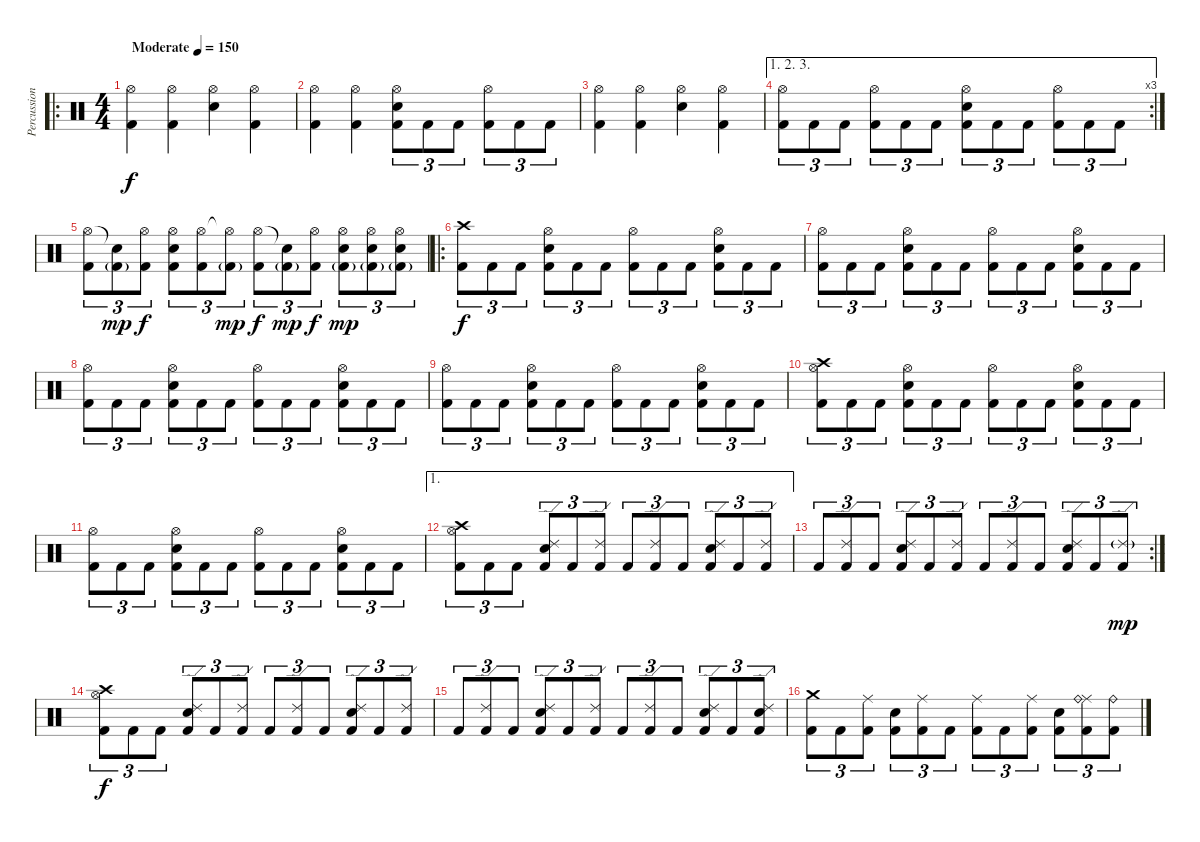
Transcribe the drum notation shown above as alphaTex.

\track ("Percussion" "Percussion") {instrument percussion}
\staff {score}
\articulation defaults
\ro
\ts (4 4)
\tempo (150 "Moderate")
\clef neutral
\ks c
("Hi-Hat (open)" "Kick (hit) 2").4{dy f} ("Hi-Hat (open)" "Kick (hit) 2").4 ("Hi-Hat (open)" "Electric Snare (hit)").4 ("Hi-Hat (open)" "Kick (hit) 2").4 |
("Hi-Hat (open)" "Kick (hit) 2").4 ("Hi-Hat (open)" "Kick (hit) 2").4 ("Hi-Hat (open)" "Electric Snare (hit)" "Kick (hit) 2").8{tu (3 2)} "Kick (hit) 2".8{tu (3 2)} "Kick (hit) 2".8{tu (3 2)} ("Hi-Hat (open)" "Kick (hit) 2").8{tu (3 2)} "Kick (hit) 2".8{tu (3 2)} "Kick (hit) 2".8{tu (3 2)} |
("Hi-Hat (open)" "Kick (hit) 2").4 ("Hi-Hat (open)" "Kick (hit) 2").4 ("Hi-Hat (open)" "Electric Snare (hit)").4 ("Hi-Hat (open)" "Kick (hit) 2").4 |
\ae (1 2 3)
\rc 3
("Hi-Hat (open)" "Kick (hit) 2").8{tu (3 2)} "Kick (hit) 2".8{tu (3 2)} "Kick (hit) 2".8{tu (3 2)} ("Hi-Hat (open)" "Kick (hit) 2").8{tu (3 2)} "Kick (hit) 2".8{tu (3 2)} "Kick (hit) 2".8{tu (3 2)} ("Hi-Hat (open)" "Electric Snare (hit)" "Kick (hit) 2").8{tu (3 2)} "Kick (hit) 2".8{tu (3 2)} "Kick (hit) 2".8{tu (3 2)} ("Hi-Hat (open)" "Kick (hit) 2").8{tu (3 2)} "Kick (hit) 2".8{tu (3 2)} "Kick (hit) 2".8{tu (3 2)} |
("Hi-Hat (open)" "Kick (hit) 2").8{tu (3 2)} ("Snare (hit)"{t} "Kick (hit) 2"{g}).8{tu (3 2) dy mp} ("Hi-Hat (open)" "Kick (hit) 2").8{tu (3 2) dy f} ("Hi-Hat (open)" "Electric Snare (hit)" "Kick (hit) 2").8{tu (3 2)} ("Hi-Hat (open)" "Kick (hit) 2").8{tu (3 2)} ("Hi-Hat (open)"{t} "Kick (hit) 2"{g}).8{tu (3 2) dy mp} ("Hi-Hat (open)" "Kick (hit) 2").8{tu (3 2) dy f} ("Snare (hit)"{t} "Kick (hit) 2"{g}).8{tu (3 2) dy mp} ("Hi-Hat (open)" "Kick (hit) 2").8{tu (3 2) dy f} ("Hi-Hat (open)" "Electric Snare (hit)" "Kick (hit) 2"{g}).8{tu (3 2) dy mp} ("Hi-Hat (open)" "Electric Snare (hit)" "Kick (hit) 2"{g}).8{tu (3 2)} ("Hi-Hat (open)" "Electric Snare (hit)" "Kick (hit) 2"{g}).8{tu (3 2)} |
\ro
("Crash high (hit)" "Kick (hit) 2").8{tu (3 2) dy f} "Kick (hit) 2".8{tu (3 2)} "Kick (hit) 2".8{tu (3 2)} ("Hi-Hat (open)" "Electric Snare (hit)" "Kick (hit) 2").8{tu (3 2)} "Kick (hit) 2".8{tu (3 2)} "Kick (hit) 2".8{tu (3 2)} ("Hi-Hat (open)" "Kick (hit) 2").8{tu (3 2)} "Kick (hit) 2".8{tu (3 2)} "Kick (hit) 2".8{tu (3 2)} ("Hi-Hat (open)" "Electric Snare (hit)" "Kick (hit) 2").8{tu (3 2)} "Kick (hit) 2".8{tu (3 2)} "Kick (hit) 2".8{tu (3 2)} |
("Hi-Hat (open)" "Kick (hit) 2").8{tu (3 2)} "Kick (hit) 2".8{tu (3 2)} "Kick (hit) 2".8{tu (3 2)} ("Hi-Hat (open)" "Electric Snare (hit)" "Kick (hit) 2").8{tu (3 2)} "Kick (hit) 2".8{tu (3 2)} "Kick (hit) 2".8{tu (3 2)} ("Hi-Hat (open)" "Kick (hit) 2").8{tu (3 2)} "Kick (hit) 2".8{tu (3 2)} "Kick (hit) 2".8{tu (3 2)} ("Hi-Hat (open)" "Electric Snare (hit)" "Kick (hit) 2").8{tu (3 2)} "Kick (hit) 2".8{tu (3 2)} "Kick (hit) 2".8{tu (3 2)} |
("Hi-Hat (open)" "Kick (hit) 2").8{tu (3 2)} "Kick (hit) 2".8{tu (3 2)} "Kick (hit) 2".8{tu (3 2)} ("Hi-Hat (open)" "Electric Snare (hit)" "Kick (hit) 2").8{tu (3 2)} "Kick (hit) 2".8{tu (3 2)} "Kick (hit) 2".8{tu (3 2)} ("Hi-Hat (open)" "Kick (hit) 2").8{tu (3 2)} "Kick (hit) 2".8{tu (3 2)} "Kick (hit) 2".8{tu (3 2)} ("Hi-Hat (open)" "Electric Snare (hit)" "Kick (hit) 2").8{tu (3 2)} "Kick (hit) 2".8{tu (3 2)} "Kick (hit) 2".8{tu (3 2)} |
("Hi-Hat (open)" "Kick (hit) 2").8{tu (3 2)} "Kick (hit) 2".8{tu (3 2)} "Kick (hit) 2".8{tu (3 2)} ("Hi-Hat (open)" "Electric Snare (hit)" "Kick (hit) 2").8{tu (3 2)} "Kick (hit) 2".8{tu (3 2)} "Kick (hit) 2".8{tu (3 2)} ("Hi-Hat (open)" "Kick (hit) 2").8{tu (3 2)} "Kick (hit) 2".8{tu (3 2)} "Kick (hit) 2".8{tu (3 2)} ("Hi-Hat (open)" "Electric Snare (hit)" "Kick (hit) 2").8{tu (3 2)} "Kick (hit) 2".8{tu (3 2)} "Kick (hit) 2".8{tu (3 2)} |
("Hi-Hat (open)" "Crash high (hit)" "Kick (hit) 2").8{tu (3 2)} "Kick (hit) 2".8{tu (3 2)} "Kick (hit) 2".8{tu (3 2)} ("Hi-Hat (open)" "Electric Snare (hit)" "Kick (hit) 2").8{tu (3 2)} "Kick (hit) 2".8{tu (3 2)} "Kick (hit) 2".8{tu (3 2)} ("Hi-Hat (open)" "Kick (hit) 2").8{tu (3 2)} "Kick (hit) 2".8{tu (3 2)} "Kick (hit) 2".8{tu (3 2)} ("Hi-Hat (open)" "Electric Snare (hit)" "Kick (hit) 2").8{tu (3 2)} "Kick (hit) 2".8{tu (3 2)} "Kick (hit) 2".8{tu (3 2)} |
("Hi-Hat (open)" "Kick (hit) 2").8{tu (3 2)} "Kick (hit) 2".8{tu (3 2)} "Kick (hit) 2".8{tu (3 2)} ("Hi-Hat (open)" "Electric Snare (hit)" "Kick (hit) 2").8{tu (3 2)} "Kick (hit) 2".8{tu (3 2)} "Kick (hit) 2".8{tu (3 2)} ("Hi-Hat (open)" "Kick (hit) 2").8{tu (3 2)} "Kick (hit) 2".8{tu (3 2)} "Kick (hit) 2".8{tu (3 2)} ("Hi-Hat (open)" "Electric Snare (hit)" "Kick (hit) 2").8{tu (3 2)} "Kick (hit) 2".8{tu (3 2)} "Kick (hit) 2".8{tu (3 2)} |
\ae 1
("Hi-Hat (open)" "Crash high (hit)" "Kick (hit) 2").8{tu (3 2)} "Kick (hit) 2".8{tu (3 2)} "Kick (hit) 2".8{tu (3 2)} ("Ride (edge) 2" "Electric Snare (hit)" "Kick (hit) 2").8{tu (3 2)} "Kick (hit) 2".8{tu (3 2)} ("Ride (edge) 2" "Kick (hit) 2").8{tu (3 2)} "Kick (hit) 2".8{tu (3 2)} ("Ride (edge) 2" "Kick (hit) 2").8{tu (3 2)} "Kick (hit) 2".8{tu (3 2)} ("Ride (edge) 2" "Electric Snare (hit)" "Kick (hit) 2").8{tu (3 2)} "Kick (hit) 2".8{tu (3 2)} ("Ride (edge) 2" "Kick (hit) 2").8{tu (3 2)} |
\rc 2 "Kick (hit) 2".8{tu (3 2)}
("Ride (edge) 2" "Kick (hit) 2").8{tu (3 2)} "Kick (hit) 2".8{tu (3 2)} ("Ride (edge) 2" "Electric Snare (hit)" "Kick (hit) 2").8{tu (3 2)} "Kick (hit) 2".8{tu (3 2)} ("Ride (edge) 2" "Kick (hit) 2").8{tu (3 2)} "Kick (hit) 2".8{tu (3 2)} ("Ride (edge) 2" "Kick (hit) 2").8{tu (3 2)} "Kick (hit) 2".8{tu (3 2)} ("Ride (edge) 2" "Electric Snare (hit)" "Kick (hit) 2").8{tu (3 2)} "Kick (hit) 2".8{tu (3 2)} ("Ride (edge) 2"{g} "Kick (hit) 2").8{tu (3 2) dy mp} |
("Hi-Hat (open)" "Crash high (hit)" "Kick (hit) 2").8{tu (3 2) dy f} "Kick (hit) 2".8{tu (3 2)} "Kick (hit) 2".8{tu (3 2)} ("Ride (edge) 2" "Electric Snare (hit)" "Kick (hit) 2").8{tu (3 2)} "Kick (hit) 2".8{tu (3 2)} ("Ride (edge) 2" "Kick (hit) 2").8{tu (3 2)} "Kick (hit) 2".8{tu (3 2)} ("Ride (edge) 2" "Kick (hit) 2").8{tu (3 2)} "Kick (hit) 2".8{tu (3 2)} ("Ride (edge) 2" "Electric Snare (hit)" "Kick (hit) 2").8{tu (3 2)} "Kick (hit) 2".8{tu (3 2)} ("Ride (edge) 2" "Kick (hit) 2").8{tu (3 2)} |
"Kick (hit) 2".8{tu (3 2)} ("Ride (edge) 2" "Kick (hit) 2").8{tu (3 2)} "Kick (hit) 2".8{tu (3 2)} ("Ride (edge) 2" "Electric Snare (hit)" "Kick (hit) 2").8{tu (3 2)} "Kick (hit) 2".8{tu (3 2)} ("Ride (edge) 2" "Kick (hit) 2").8{tu (3 2)} "Kick (hit) 2".8{tu (3 2)} ("Ride (edge) 2" "Kick (hit) 2").8{tu (3 2)} "Kick (hit) 2".8{tu (3 2)} ("Ride (edge) 2" "Electric Snare (hit)" "Kick (hit) 2").8{tu (3 2)} "Kick (hit) 2".8{tu (3 2)} ("Ride (edge) 2" "Electric Snare (hit)" "Kick (hit) 2").8{tu (3 2)} |
("Crash medium (hit)" "Kick (hit) 2").8{tu (3 2)} "Kick (hit) 2".8{tu (3 2)} ("Ride (middle)" "Kick (hit) 2").8{tu (3 2)} ("Electric Snare (hit)" "Kick (hit) 2").8{tu (3 2)} ("Ride (middle)" "Kick (hit) 2").8{tu (3 2)} "Kick (hit) 2".8{tu (3 2)} ("Ride (middle)" "Kick (hit) 2").8{tu (3 2)} "Kick (hit) 2".8{tu (3 2)} ("Ride (middle)" "Kick (hit) 2").8{tu (3 2)} ("Electric Snare (hit)" "Kick (hit) 2").8{tu (3 2)} ("Ride (middle)" "Ride (bell)" "Kick (hit) 2").8{tu (3 2)} ("Ride (bell)" "Kick (hit) 2").8{tu (3 2)}
